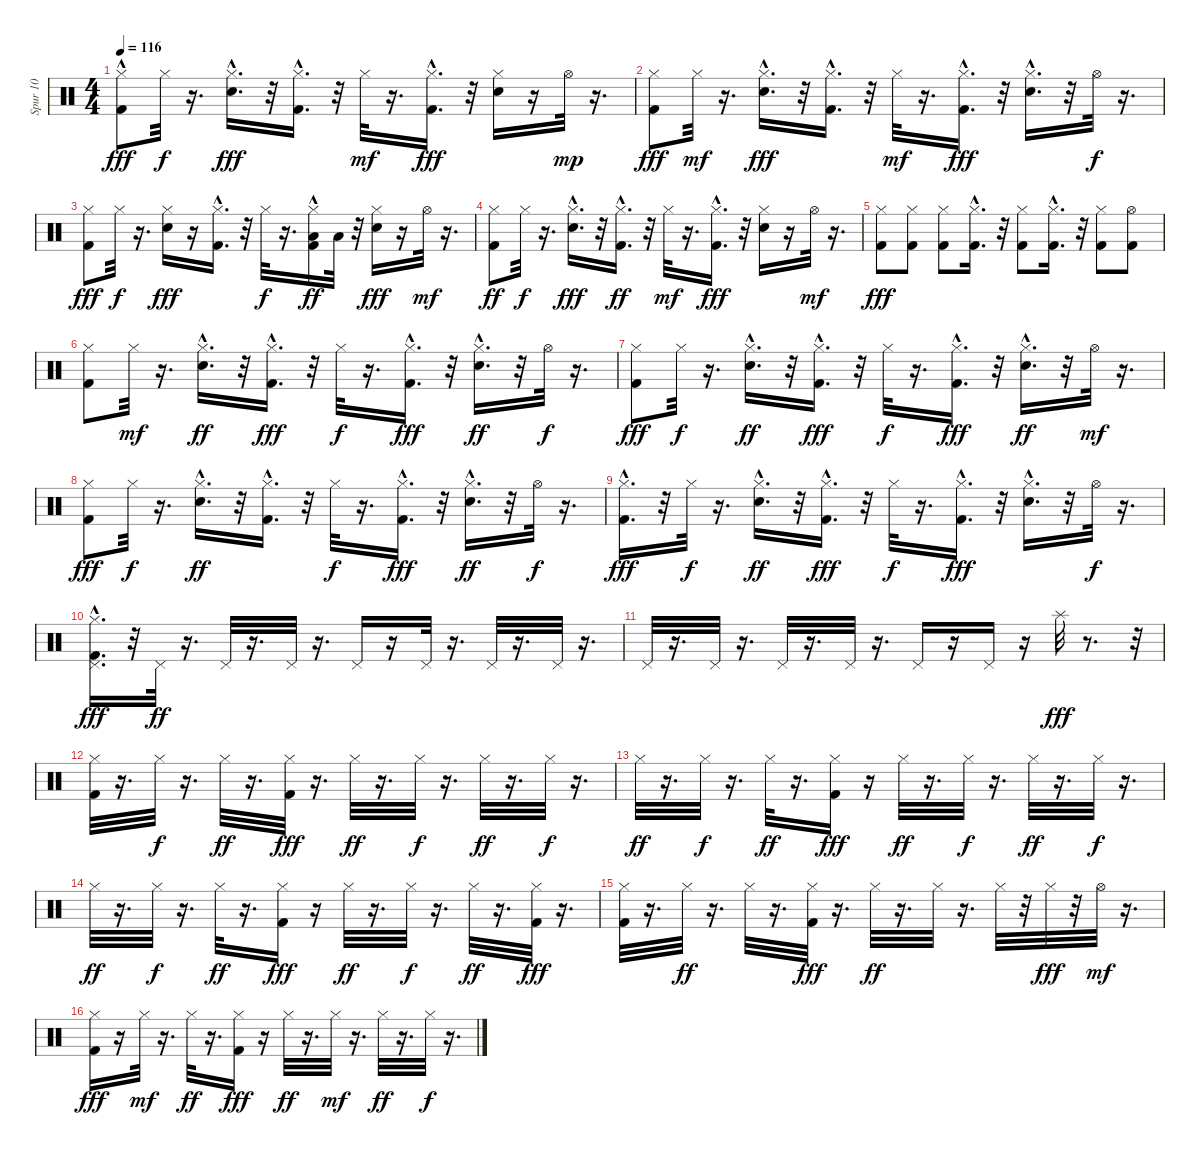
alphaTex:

\track ("Spur 10" "Spur 10") {instrument percussion}
\staff {score}
\articulation defaults
\ts (4 4)
\tempo 116
\clef neutral
\ks c
("Hi-Hat (closed)" "Kick (hit) 2"{hac}).8{dy fff} "Hi-Hat (closed)".32{dy f} r.16{d} ("Hi-Hat (closed)" "Snare (hit) 2"{hac}).16{d dy fff} r.32 ("Hi-Hat (closed)" "Kick (hit) 2"{hac}).16{d} r.32 "Hi-Hat (closed)".32{dy mf} r.16{d} ("Hi-Hat (closed)" "Kick (hit) 2"{hac}).16{d dy fff} r.32 ("Hi-Hat (closed)" "Snare (hit) 2").16 r.16 "Hi-Hat (open)".32{dy mp} r.16{d} |
("Hi-Hat (closed)" "Kick (hit) 2").8{dy fff} "Hi-Hat (closed)".32{dy mf} r.16{d} ("Hi-Hat (closed)" "Snare (hit) 2"{hac}).16{d dy fff} r.32 ("Hi-Hat (closed)" "Kick (hit) 2"{hac}).16{d} r.32 "Hi-Hat (closed)".32{dy mf} r.16{d} ("Hi-Hat (closed)" "Kick (hit) 2"{hac}).16{d dy fff} r.32 ("Hi-Hat (closed)" "Snare (hit) 2"{hac}).16{d} r.32 "Hi-Hat (open)".32{dy f} r.16{d} |
("Hi-Hat (closed)" "Kick (hit) 2").8{dy fff} "Hi-Hat (closed)".32{dy f} r.16{d} ("Hi-Hat (closed)" "Snare (hit) 2").16{dy fff} r.16 ("Hi-Hat (closed)" "Kick (hit) 2"{hac}).16{d} r.32 "Hi-Hat (closed)".32{dy f} r.16{d} ("Hi-Hat (closed)" "Kick (hit) 2"{hac} "Low Tom (hit)").16{dy ff} "Low Tom (hit)".32 r.32 ("Hi-Hat (closed)" "Snare (hit) 2").16{dy fff} r.16 "Hi-Hat (open)".32{dy mf} r.16{d} |
("Hi-Hat (closed)" "Kick (hit) 2").8{dy ff} "Hi-Hat (closed)".32{dy f} r.16{d} ("Hi-Hat (closed)" "Snare (hit) 2"{hac}).16{d dy fff} r.32 ("Hi-Hat (closed)" "Kick (hit) 2"{hac}).16{d dy ff} r.32 "Hi-Hat (closed)".32{dy mf} r.16{d} ("Hi-Hat (closed)" "Kick (hit) 2"{hac}).16{d dy fff} r.32 ("Hi-Hat (closed)" "Snare (hit) 2").16 r.16 "Hi-Hat (open)".32{dy mf} r.16{d} |
("Hi-Hat (closed)" "Kick (hit) 2").8{dy fff} ("Hi-Hat (closed)" "Kick (hit) 2").8 ("Hi-Hat (closed)" "Kick (hit) 2").8 ("Hi-Hat (closed)" "Kick (hit) 2"{hac}).16{d} r.32 ("Hi-Hat (closed)" "Kick (hit) 2").8 ("Hi-Hat (closed)" "Kick (hit) 2"{hac}).16{d} r.32 ("Hi-Hat (closed)" "Kick (hit) 2").8 ("Hi-Hat (open)" "Kick (hit) 2").8 |
("Hi-Hat (closed)" "Kick (hit) 2").8 "Hi-Hat (closed)".32{dy mf} r.16{d} ("Hi-Hat (closed)" "Snare (hit) 2"{hac}).16{d dy ff} r.32 ("Hi-Hat (closed)" "Kick (hit) 2"{hac}).16{d dy fff} r.32 "Hi-Hat (closed)".32{dy f} r.16{d} ("Hi-Hat (closed)" "Kick (hit) 2"{hac}).16{d dy fff} r.32 ("Hi-Hat (closed)" "Snare (hit) 2"{hac}).16{d dy ff} r.32 "Hi-Hat (open)".32{dy f} r.16{d} |
("Hi-Hat (closed)" "Kick (hit) 2").8{dy fff} "Hi-Hat (closed)".32{dy f} r.16{d} ("Hi-Hat (closed)" "Snare (hit) 2"{hac}).16{d dy ff} r.32 ("Hi-Hat (closed)" "Kick (hit) 2"{hac}).16{d dy fff} r.32 "Hi-Hat (closed)".32{dy f} r.16{d} ("Hi-Hat (closed)" "Kick (hit) 2"{hac}).16{d dy fff} r.32 ("Hi-Hat (closed)" "Snare (hit) 2"{hac}).16{d dy ff} r.32 "Hi-Hat (open)".32{dy mf} r.16{d} |
("Hi-Hat (closed)" "Kick (hit) 2").8{dy fff} "Hi-Hat (closed)".32{dy f} r.16{d} ("Hi-Hat (closed)" "Snare (hit) 2"{hac}).16{d dy ff} r.32 ("Hi-Hat (closed)" "Kick (hit) 2"{hac}).16{d} r.32 "Hi-Hat (closed)".32{dy f} r.16{d} ("Hi-Hat (closed)" "Kick (hit) 2"{hac}).16{d dy fff} r.32 ("Hi-Hat (closed)" "Snare (hit) 2"{hac}).16{d dy ff} r.32 "Hi-Hat (open)".32{dy f} r.16{d} |
("Hi-Hat (closed)" "Kick (hit) 2"{hac}).16{d dy fff} r.32 "Hi-Hat (closed)".32{dy f} r.16{d} ("Hi-Hat (closed)" "Snare (hit) 2"{hac}).16{d dy ff} r.32 ("Hi-Hat (closed)" "Kick (hit) 2"{hac}).16{d dy fff} r.32 "Hi-Hat (closed)".32{dy f} r.16{d} ("Hi-Hat (closed)" "Kick (hit) 2"{hac}).16{d dy fff} r.32 ("Hi-Hat (closed)" "Snare (hit) 2"{hac}).16{d} r.32 "Hi-Hat (open)".32{dy f} r.16{d} |
("Hi-Hat (closed)" "Pedal Hi-Hat (hit)" "Kick (hit) 2"{hac}).16{d dy fff} r.32 "Pedal Hi-Hat (hit)".32{dy ff} r.16{d} "Pedal Hi-Hat (hit)".32 r.16{d} "Pedal Hi-Hat (hit)".32 r.16{d} "Pedal Hi-Hat (hit)".16 r.16 "Pedal Hi-Hat (hit)".32 r.16{d} "Pedal Hi-Hat (hit)".32 r.16{d} "Pedal Hi-Hat (hit)".32 r.16{d} |
"Pedal Hi-Hat (hit)".32 r.16{d} "Pedal Hi-Hat (hit)".32 r.16{d} "Pedal Hi-Hat (hit)".32 r.16{d} "Pedal Hi-Hat (hit)".32 r.16{d} "Pedal Hi-Hat (hit)".16 r.16 "Pedal Hi-Hat (hit)".16 r.16 "Splash (hit)".32{dy fff} r.8{d} r.32 |
("Hi-Hat (closed)" "Kick (hit) 2").32 r.16{d} "Hi-Hat (closed)".32{dy f} r.16{d} "Hi-Hat (closed)".32{dy ff} r.16{d} ("Hi-Hat (closed)" "Kick (hit) 2").32{dy fff} r.16{d} "Hi-Hat (closed)".32{dy ff} r.16{d} "Hi-Hat (closed)".32{dy f} r.16{d} "Hi-Hat (closed)".32{dy ff} r.16{d} "Hi-Hat (closed)".32{dy f} r.16{d} |
"Hi-Hat (closed)".32{dy ff} r.16{d} "Hi-Hat (closed)".32{dy f} r.16{d} "Hi-Hat (closed)".32{dy ff} r.16{d} ("Hi-Hat (closed)" "Kick (hit) 2").16{dy fff} r.16 "Hi-Hat (closed)".32{dy ff} r.16{d} "Hi-Hat (closed)".32{dy f} r.16{d} "Hi-Hat (closed)".32{dy ff} r.16{d} "Hi-Hat (closed)".32{dy f} r.16{d} |
"Hi-Hat (closed)".32{dy ff} r.16{d} "Hi-Hat (closed)".32{dy f} r.16{d} "Hi-Hat (closed)".32{dy ff} r.16{d} ("Hi-Hat (closed)" "Kick (hit) 2").16{dy fff} r.16 "Hi-Hat (closed)".32{dy ff} r.16{d} "Hi-Hat (closed)".32{dy f} r.16{d} "Hi-Hat (closed)".32{dy ff} r.16{d} ("Hi-Hat (closed)" "Kick (hit) 2").32{dy fff} r.16{d} |
("Hi-Hat (closed)" "Kick (hit) 2").32 r.16{d} "Hi-Hat (closed)".32{dy ff} r.16{d} "Hi-Hat (closed)".32 r.16{d} ("Hi-Hat (closed)" "Kick (hit) 2").32{dy fff} r.16{d} "Hi-Hat (closed)".32{dy ff} r.16{d} "Hi-Hat (closed)".32 r.16{d} "Hi-Hat (closed)".32 r.32 "Hi-Hat (closed)".32{dy fff} r.32 "Hi-Hat (open)".32{dy mf} r.16{d} |
("Hi-Hat (closed)" "Kick (hit) 2").16{dy fff} r.16 "Hi-Hat (closed)".32{dy mf} r.16{d} "Hi-Hat (closed)".32{dy ff} r.16{d} ("Hi-Hat (closed)" "Kick (hit) 2").16{dy fff} r.16 "Hi-Hat (closed)".32{dy ff} r.16{d} "Hi-Hat (closed)".32{dy mf} r.16{d} "Hi-Hat (closed)".32{dy ff} r.16{d} "Hi-Hat (closed)".32{dy f} r.16{d}
